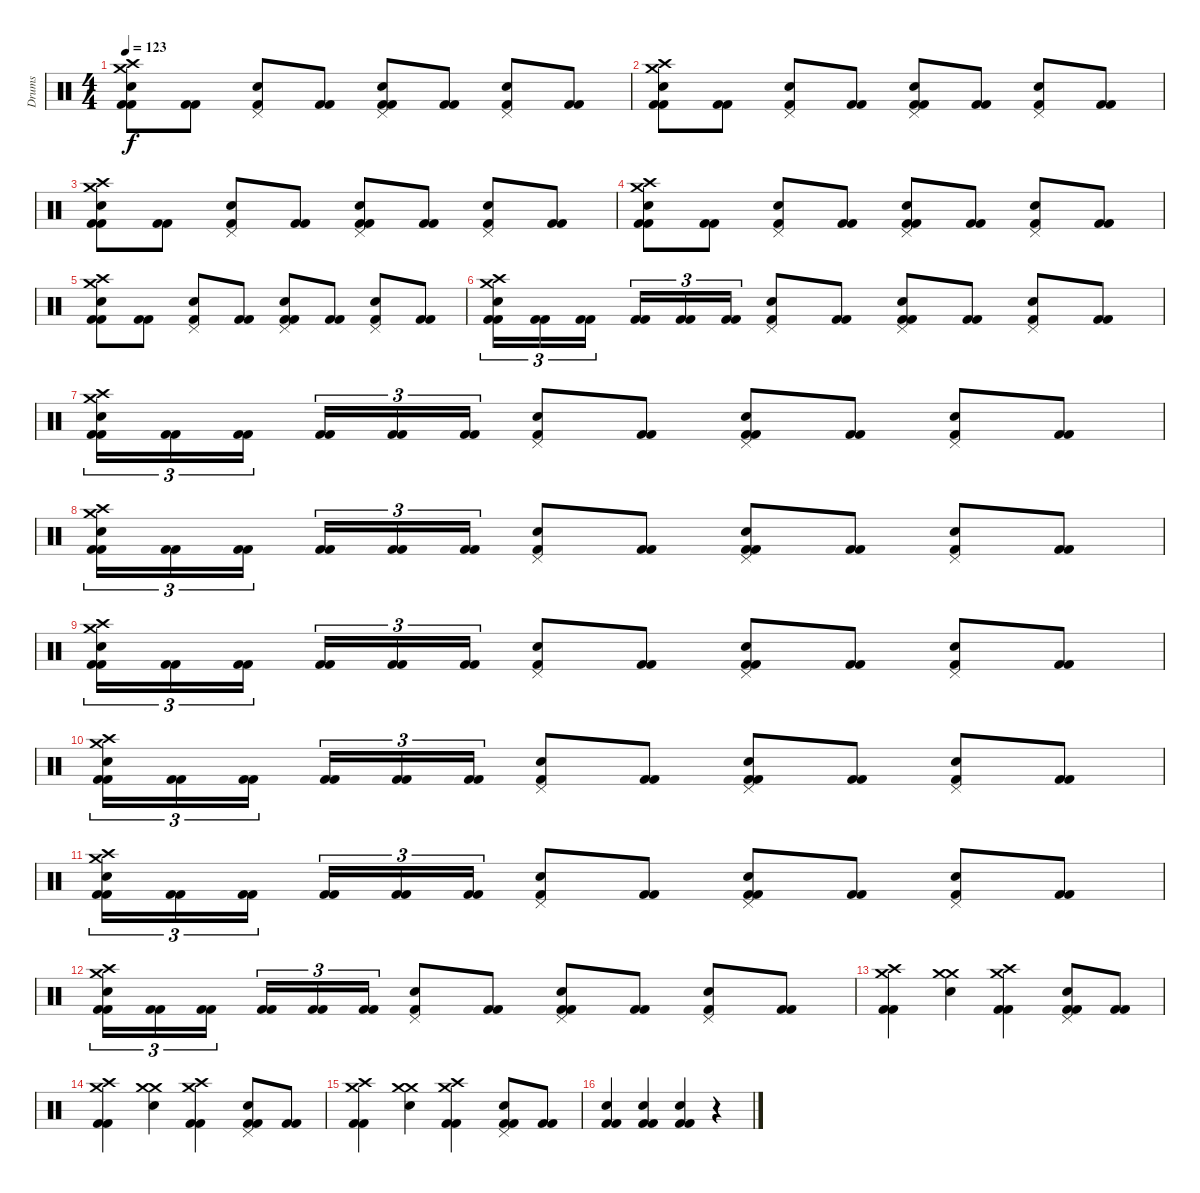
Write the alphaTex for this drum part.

\track ("Drums" "Drums") {instrument percussion}
\staff {score}
\articulation defaults
\ts (4 4)
\tempo 123
\clef neutral
\ks c
("Crash medium (hit)" "Crash high (hit)" "Snare (hit) 2" "Kick (hit) 2" "Kick (hit) 2").8{dy f} ("Kick (hit) 2" "Kick (hit) 2").8 ("Pedal Hi-Hat (hit)" "Snare (hit) 2" "Kick (hit) 2").8 ("Kick (hit) 2" "Kick (hit) 2").8 ("Pedal Hi-Hat (hit)" "Snare (hit) 2" "Kick (hit) 2" "Kick (hit) 2").8 ("Kick (hit) 2" "Kick (hit) 2").8 ("Pedal Hi-Hat (hit)" "Snare (hit) 2" "Kick (hit) 2").8 ("Kick (hit) 2" "Kick (hit) 2").8 |
("Crash medium (hit)" "Crash high (hit)" "Snare (hit) 2" "Kick (hit) 2" "Kick (hit) 2").8 ("Kick (hit) 2" "Kick (hit) 2").8 ("Pedal Hi-Hat (hit)" "Snare (hit) 2" "Kick (hit) 2").8 ("Kick (hit) 2" "Kick (hit) 2").8 ("Pedal Hi-Hat (hit)" "Snare (hit) 2" "Kick (hit) 2" "Kick (hit) 2").8 ("Kick (hit) 2" "Kick (hit) 2").8 ("Pedal Hi-Hat (hit)" "Snare (hit) 2" "Kick (hit) 2").8 ("Kick (hit) 2" "Kick (hit) 2").8 |
("Crash medium (hit)" "Crash high (hit)" "Snare (hit) 2" "Kick (hit) 2" "Kick (hit) 2").8 ("Kick (hit) 2" "Kick (hit) 2").8 ("Pedal Hi-Hat (hit)" "Snare (hit) 2" "Kick (hit) 2").8 ("Kick (hit) 2" "Kick (hit) 2").8 ("Pedal Hi-Hat (hit)" "Snare (hit) 2" "Kick (hit) 2" "Kick (hit) 2").8 ("Kick (hit) 2" "Kick (hit) 2").8 ("Pedal Hi-Hat (hit)" "Snare (hit) 2" "Kick (hit) 2").8 ("Kick (hit) 2" "Kick (hit) 2").8 |
("Crash medium (hit)" "Crash high (hit)" "Snare (hit) 2" "Kick (hit) 2" "Kick (hit) 2").8 ("Kick (hit) 2" "Kick (hit) 2").8 ("Pedal Hi-Hat (hit)" "Snare (hit) 2" "Kick (hit) 2").8 ("Kick (hit) 2" "Kick (hit) 2").8 ("Pedal Hi-Hat (hit)" "Snare (hit) 2" "Kick (hit) 2" "Kick (hit) 2").8 ("Kick (hit) 2" "Kick (hit) 2").8 ("Pedal Hi-Hat (hit)" "Snare (hit) 2" "Kick (hit) 2").8 ("Kick (hit) 2" "Kick (hit) 2").8 |
("Crash medium (hit)" "Crash high (hit)" "Snare (hit) 2" "Kick (hit) 2" "Kick (hit) 2").8 ("Kick (hit) 2" "Kick (hit) 2").8 ("Pedal Hi-Hat (hit)" "Snare (hit) 2" "Kick (hit) 2").8 ("Kick (hit) 2" "Kick (hit) 2").8 ("Pedal Hi-Hat (hit)" "Snare (hit) 2" "Kick (hit) 2" "Kick (hit) 2").8 ("Kick (hit) 2" "Kick (hit) 2").8 ("Pedal Hi-Hat (hit)" "Snare (hit) 2" "Kick (hit) 2").8 ("Kick (hit) 2" "Kick (hit) 2").8 |
("Crash medium (hit)" "Crash high (hit)" "Snare (hit) 2" "Kick (hit) 2" "Kick (hit) 2").16{tu (3 2)} ("Kick (hit) 2" "Kick (hit) 2").16{tu (3 2)} ("Kick (hit) 2" "Kick (hit) 2").16{tu (3 2)} ("Kick (hit) 2" "Kick (hit) 2").16{tu (3 2)} ("Kick (hit) 2" "Kick (hit) 2").16{tu (3 2)} ("Kick (hit) 2" "Kick (hit) 2").16{tu (3 2)} ("Pedal Hi-Hat (hit)" "Snare (hit) 2" "Kick (hit) 2").8 ("Kick (hit) 2" "Kick (hit) 2").8 ("Pedal Hi-Hat (hit)" "Snare (hit) 2" "Kick (hit) 2" "Kick (hit) 2").8 ("Kick (hit) 2" "Kick (hit) 2").8 ("Pedal Hi-Hat (hit)" "Snare (hit) 2" "Kick (hit) 2").8 ("Kick (hit) 2" "Kick (hit) 2").8 |
("Crash medium (hit)" "Crash high (hit)" "Snare (hit) 2" "Kick (hit) 2" "Kick (hit) 2").16{tu (3 2)} ("Kick (hit) 2" "Kick (hit) 2").16{tu (3 2)} ("Kick (hit) 2" "Kick (hit) 2").16{tu (3 2)} ("Kick (hit) 2" "Kick (hit) 2").16{tu (3 2)} ("Kick (hit) 2" "Kick (hit) 2").16{tu (3 2)} ("Kick (hit) 2" "Kick (hit) 2").16{tu (3 2)} ("Pedal Hi-Hat (hit)" "Snare (hit) 2" "Kick (hit) 2").8 ("Kick (hit) 2" "Kick (hit) 2").8 ("Pedal Hi-Hat (hit)" "Snare (hit) 2" "Kick (hit) 2" "Kick (hit) 2").8 ("Kick (hit) 2" "Kick (hit) 2").8 ("Pedal Hi-Hat (hit)" "Snare (hit) 2" "Kick (hit) 2").8 ("Kick (hit) 2" "Kick (hit) 2").8 |
("Crash medium (hit)" "Crash high (hit)" "Snare (hit) 2" "Kick (hit) 2" "Kick (hit) 2").16{tu (3 2)} ("Kick (hit) 2" "Kick (hit) 2").16{tu (3 2)} ("Kick (hit) 2" "Kick (hit) 2").16{tu (3 2)} ("Kick (hit) 2" "Kick (hit) 2").16{tu (3 2)} ("Kick (hit) 2" "Kick (hit) 2").16{tu (3 2)} ("Kick (hit) 2" "Kick (hit) 2").16{tu (3 2)} ("Pedal Hi-Hat (hit)" "Snare (hit) 2" "Kick (hit) 2").8 ("Kick (hit) 2" "Kick (hit) 2").8 ("Pedal Hi-Hat (hit)" "Snare (hit) 2" "Kick (hit) 2" "Kick (hit) 2").8 ("Kick (hit) 2" "Kick (hit) 2").8 ("Pedal Hi-Hat (hit)" "Snare (hit) 2" "Kick (hit) 2").8 ("Kick (hit) 2" "Kick (hit) 2").8 |
("Crash medium (hit)" "Crash high (hit)" "Snare (hit) 2" "Kick (hit) 2" "Kick (hit) 2").16{tu (3 2)} ("Kick (hit) 2" "Kick (hit) 2").16{tu (3 2)} ("Kick (hit) 2" "Kick (hit) 2").16{tu (3 2)} ("Kick (hit) 2" "Kick (hit) 2").16{tu (3 2)} ("Kick (hit) 2" "Kick (hit) 2").16{tu (3 2)} ("Kick (hit) 2" "Kick (hit) 2").16{tu (3 2)} ("Pedal Hi-Hat (hit)" "Snare (hit) 2" "Kick (hit) 2").8 ("Kick (hit) 2" "Kick (hit) 2").8 ("Pedal Hi-Hat (hit)" "Snare (hit) 2" "Kick (hit) 2" "Kick (hit) 2").8 ("Kick (hit) 2" "Kick (hit) 2").8 ("Pedal Hi-Hat (hit)" "Snare (hit) 2" "Kick (hit) 2").8 ("Kick (hit) 2" "Kick (hit) 2").8 |
("Crash medium (hit)" "Crash high (hit)" "Snare (hit) 2" "Kick (hit) 2" "Kick (hit) 2").16{tu (3 2)} ("Kick (hit) 2" "Kick (hit) 2").16{tu (3 2)} ("Kick (hit) 2" "Kick (hit) 2").16{tu (3 2)} ("Kick (hit) 2" "Kick (hit) 2").16{tu (3 2)} ("Kick (hit) 2" "Kick (hit) 2").16{tu (3 2)} ("Kick (hit) 2" "Kick (hit) 2").16{tu (3 2)} ("Pedal Hi-Hat (hit)" "Snare (hit) 2" "Kick (hit) 2").8 ("Kick (hit) 2" "Kick (hit) 2").8 ("Pedal Hi-Hat (hit)" "Snare (hit) 2" "Kick (hit) 2" "Kick (hit) 2").8 ("Kick (hit) 2" "Kick (hit) 2").8 ("Pedal Hi-Hat (hit)" "Snare (hit) 2" "Kick (hit) 2").8 ("Kick (hit) 2" "Kick (hit) 2").8 |
("Crash medium (hit)" "Crash high (hit)" "Snare (hit) 2" "Kick (hit) 2" "Kick (hit) 2").16{tu (3 2)} ("Kick (hit) 2" "Kick (hit) 2").16{tu (3 2)} ("Kick (hit) 2" "Kick (hit) 2").16{tu (3 2)} ("Kick (hit) 2" "Kick (hit) 2").16{tu (3 2)} ("Kick (hit) 2" "Kick (hit) 2").16{tu (3 2)} ("Kick (hit) 2" "Kick (hit) 2").16{tu (3 2)} ("Pedal Hi-Hat (hit)" "Snare (hit) 2" "Kick (hit) 2").8 ("Kick (hit) 2" "Kick (hit) 2").8 ("Pedal Hi-Hat (hit)" "Snare (hit) 2" "Kick (hit) 2" "Kick (hit) 2").8 ("Kick (hit) 2" "Kick (hit) 2").8 ("Pedal Hi-Hat (hit)" "Snare (hit) 2" "Kick (hit) 2").8 ("Kick (hit) 2" "Kick (hit) 2").8 |
("Crash medium (hit)" "Crash high (hit)" "Snare (hit) 2" "Kick (hit) 2" "Kick (hit) 2").16{tu (3 2)} ("Kick (hit) 2" "Kick (hit) 2").16{tu (3 2)} ("Kick (hit) 2" "Kick (hit) 2").16{tu (3 2)} ("Kick (hit) 2" "Kick (hit) 2").16{tu (3 2)} ("Kick (hit) 2" "Kick (hit) 2").16{tu (3 2)} ("Kick (hit) 2" "Kick (hit) 2").16{tu (3 2)} ("Pedal Hi-Hat (hit)" "Snare (hit) 2" "Kick (hit) 2").8 ("Kick (hit) 2" "Kick (hit) 2").8 ("Pedal Hi-Hat (hit)" "Snare (hit) 2" "Kick (hit) 2" "Kick (hit) 2").8 ("Kick (hit) 2" "Kick (hit) 2").8 ("Pedal Hi-Hat (hit)" "Snare (hit) 2" "Kick (hit) 2").8 ("Kick (hit) 2" "Kick (hit) 2").8 |
("Crash medium (hit)" "Crash high (hit)" "Kick (hit) 2" "Kick (hit) 2").4 ("Crash medium (hit)" "Crash medium (hit)" "Snare (hit) 2").4 ("Crash medium (hit)" "Crash high (hit)" "Kick (hit) 2" "Kick (hit) 2").4 ("Pedal Hi-Hat (hit)" "Snare (hit) 2" "Kick (hit) 2" "Kick (hit) 2").8 ("Kick (hit) 2" "Kick (hit) 2").8 |
("Crash medium (hit)" "Crash high (hit)" "Kick (hit) 2" "Kick (hit) 2").4 ("Crash medium (hit)" "Crash medium (hit)" "Snare (hit) 2").4 ("Crash medium (hit)" "Crash high (hit)" "Kick (hit) 2" "Kick (hit) 2").4 ("Pedal Hi-Hat (hit)" "Snare (hit) 2" "Kick (hit) 2" "Kick (hit) 2").8 ("Kick (hit) 2" "Kick (hit) 2").8 |
("Crash medium (hit)" "Crash high (hit)" "Kick (hit) 2" "Kick (hit) 2").4 ("Crash medium (hit)" "Crash medium (hit)" "Snare (hit) 2").4 ("Crash medium (hit)" "Crash high (hit)" "Kick (hit) 2" "Kick (hit) 2").4 ("Pedal Hi-Hat (hit)" "Snare (hit) 2" "Kick (hit) 2" "Kick (hit) 2").8 ("Kick (hit) 2" "Kick (hit) 2").8 |
("Snare (hit) 2" "Kick (hit) 2" "Kick (hit) 2").4 ("Snare (hit) 2" "Kick (hit) 2" "Kick (hit) 2").4 ("Snare (hit) 2" "Kick (hit) 2" "Kick (hit) 2").4 r.4
